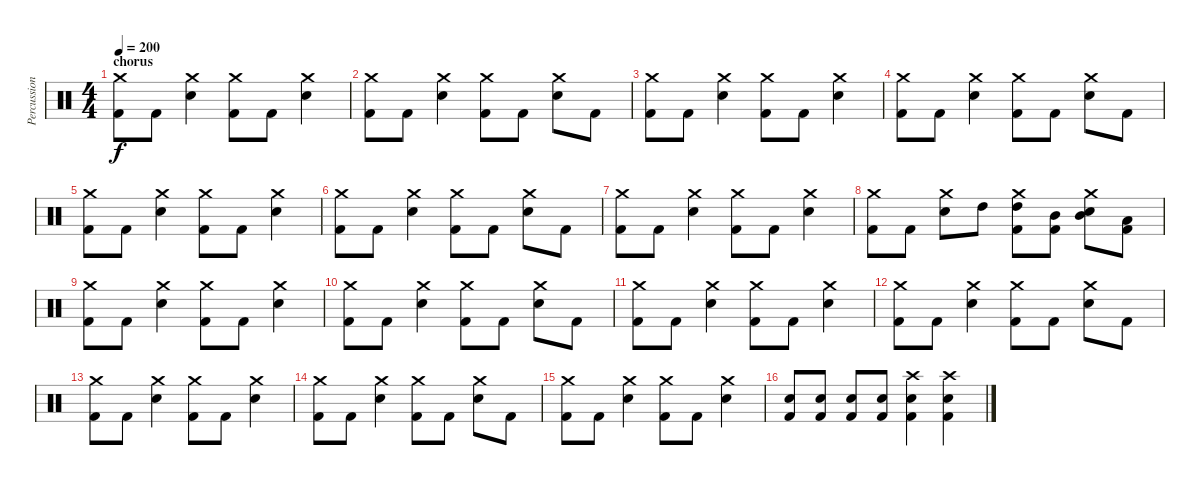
\track ("Percussions" "Percussion") {instrument percussion}
\staff {score}
\articulation defaults
\ts (4 4)
\section ("" "chorus")
\tempo 200
\clef neutral
\ks c
("Crash medium (hit)" "Kick (hit) 2").8{dy f} "Kick (hit) 2".8 ("Crash medium (hit)" "Electric Snare (hit)").4 ("Crash medium (hit)" "Kick (hit) 2").8 "Kick (hit) 2".8 ("Crash medium (hit)" "Electric Snare (hit)").4 |
("Crash medium (hit)" "Kick (hit) 2").8 "Kick (hit) 2".8 ("Crash medium (hit)" "Electric Snare (hit)").4 ("Crash medium (hit)" "Kick (hit) 2").8 "Kick (hit) 2".8 ("Crash medium (hit)" "Electric Snare (hit)").8 "Kick (hit) 2".8 |
("Crash medium (hit)" "Kick (hit) 2").8 "Kick (hit) 2".8 ("Crash medium (hit)" "Electric Snare (hit)").4 ("Crash medium (hit)" "Kick (hit) 2").8 "Kick (hit) 2".8 ("Crash medium (hit)" "Electric Snare (hit)").4 |
("Crash medium (hit)" "Kick (hit) 2").8 "Kick (hit) 2".8 ("Crash medium (hit)" "Electric Snare (hit)").4 ("Crash medium (hit)" "Kick (hit) 2").8 "Kick (hit) 2".8 ("Crash medium (hit)" "Electric Snare (hit)").8 "Kick (hit) 2".8 |
("Crash medium (hit)" "Kick (hit) 2").8 "Kick (hit) 2".8 ("Crash medium (hit)" "Electric Snare (hit)").4 ("Crash medium (hit)" "Kick (hit) 2").8 "Kick (hit) 2".8 ("Crash medium (hit)" "Electric Snare (hit)").4 |
("Crash medium (hit)" "Kick (hit) 2").8 "Kick (hit) 2".8 ("Crash medium (hit)" "Electric Snare (hit)").4 ("Crash medium (hit)" "Kick (hit) 2").8 "Kick (hit) 2".8 ("Crash medium (hit)" "Electric Snare (hit)").8 "Kick (hit) 2".8 |
("Crash medium (hit)" "Kick (hit) 2").8 "Kick (hit) 2".8 ("Crash medium (hit)" "Electric Snare (hit)").4 ("Crash medium (hit)" "Kick (hit) 2").8 "Kick (hit) 2".8 ("Crash medium (hit)" "Electric Snare (hit)").4 |
("Crash medium (hit)" "Kick (hit) 2").8 "Kick (hit) 2".8 ("Crash medium (hit)" "Electric Snare (hit)").8 "High Tom (hit)".8 ("Crash medium (hit)" "High Tom (hit)" "Kick (hit) 2").8 ("Mid Tom (hit)" "Kick (hit) 2").8 ("Crash medium (hit)" "Mid Tom (hit)" "Electric Snare (hit)").8 ("Low Tom (hit)" "Kick (hit) 2").8 |
("Crash medium (hit)" "Kick (hit) 2").8 "Kick (hit) 2".8 ("Crash medium (hit)" "Electric Snare (hit)").4 ("Crash medium (hit)" "Kick (hit) 2").8 "Kick (hit) 2".8 ("Crash medium (hit)" "Electric Snare (hit)").4 |
("Crash medium (hit)" "Kick (hit) 2").8 "Kick (hit) 2".8 ("Crash medium (hit)" "Electric Snare (hit)").4 ("Crash medium (hit)" "Kick (hit) 2").8 "Kick (hit) 2".8 ("Crash medium (hit)" "Electric Snare (hit)").8 "Kick (hit) 2".8 |
("Crash medium (hit)" "Kick (hit) 2").8 "Kick (hit) 2".8 ("Crash medium (hit)" "Electric Snare (hit)").4 ("Crash medium (hit)" "Kick (hit) 2").8 "Kick (hit) 2".8 ("Crash medium (hit)" "Electric Snare (hit)").4 |
("Crash medium (hit)" "Kick (hit) 2").8 "Kick (hit) 2".8 ("Crash medium (hit)" "Electric Snare (hit)").4 ("Crash medium (hit)" "Kick (hit) 2").8 "Kick (hit) 2".8 ("Crash medium (hit)" "Electric Snare (hit)").8 "Kick (hit) 2".8 |
("Crash medium (hit)" "Kick (hit) 2").8 "Kick (hit) 2".8 ("Crash medium (hit)" "Electric Snare (hit)").4 ("Crash medium (hit)" "Kick (hit) 2").8 "Kick (hit) 2".8 ("Crash medium (hit)" "Electric Snare (hit)").4 |
("Crash medium (hit)" "Kick (hit) 2").8 "Kick (hit) 2".8 ("Crash medium (hit)" "Electric Snare (hit)").4 ("Crash medium (hit)" "Kick (hit) 2").8 "Kick (hit) 2".8 ("Crash medium (hit)" "Electric Snare (hit)").8 "Kick (hit) 2".8 |
("Crash medium (hit)" "Kick (hit) 2").8 "Kick (hit) 2".8 ("Crash medium (hit)" "Electric Snare (hit)").4 ("Crash medium (hit)" "Kick (hit) 2").8 "Kick (hit) 2".8 ("Crash medium (hit)" "Electric Snare (hit)").4 |
("Electric Snare (hit)" "Kick (hit) 2").8 ("Electric Snare (hit)" "Kick (hit) 2").8 ("Electric Snare (hit)" "Kick (hit) 2").8 ("Electric Snare (hit)" "Kick (hit) 2").8 ("Crash high (hit)" "Electric Snare (hit)" "Kick (hit) 2").4 ("Crash high (hit)" "Electric Snare (hit)" "Kick (hit) 2").4
